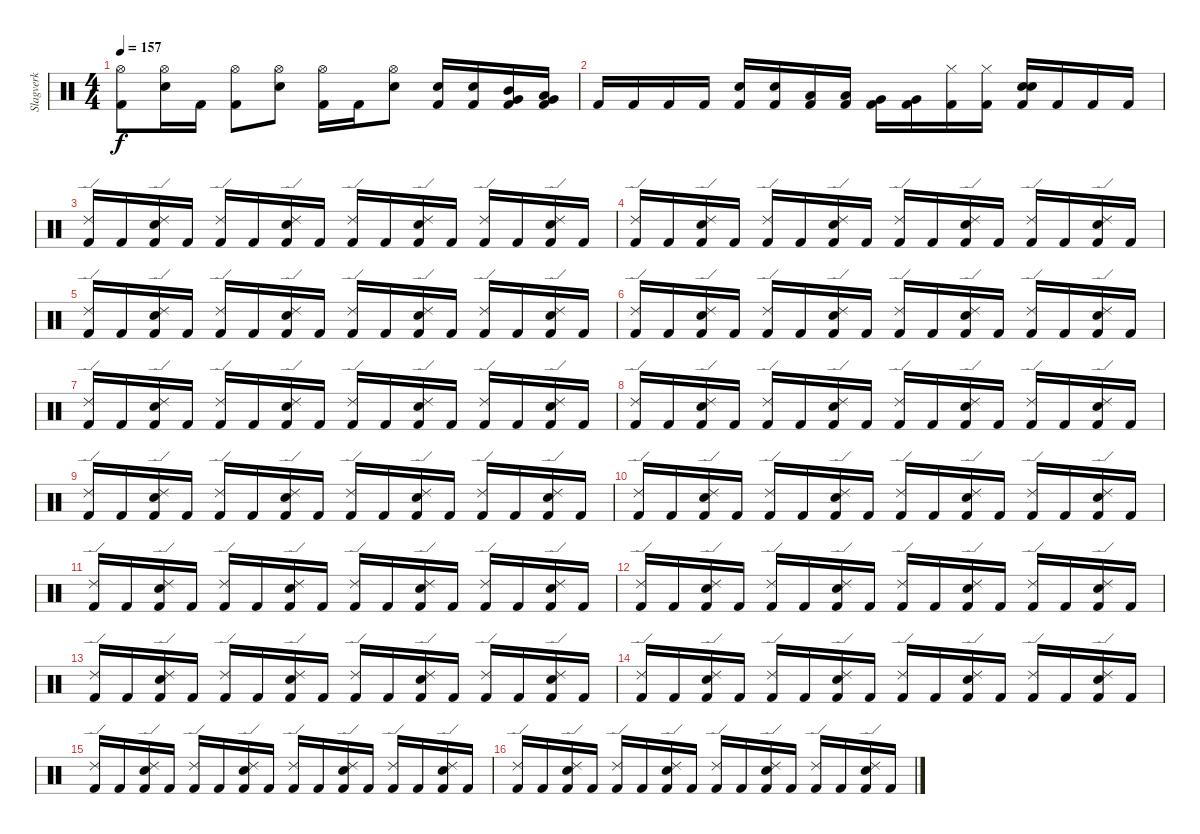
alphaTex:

\track ("Slagverk" "Slagverk") {instrument percussion}
\staff {score}
\articulation defaults
\ts (4 4)
\tempo 157
\clef neutral
\ks c
("Kick (hit) 2" "Hi-Hat (open)").8{dy f} ("Snare (hit) 2" "Hi-Hat (open)").16 "Kick (hit) 2".16 ("Kick (hit) 2" "Hi-Hat (open)").8 ("Snare (hit) 2" "Hi-Hat (open)").8 ("Kick (hit) 2" "Hi-Hat (open)").16 "Kick (hit) 2".16 ("Snare (hit) 2" "Hi-Hat (open)").8 ("Snare (hit) 2" "Kick (hit) 2").16 ("Snare (hit) 2" "Kick (hit) 2").16 ("Very Low Tom (hit)" "Mid Tom (hit)" "Kick (hit) 2").16 ("Low Tom (hit)" "Very Low Tom (hit)" "Kick (hit) 2").16 |
"Kick (hit) 2".16 "Kick (hit) 2".16 "Kick (hit) 2".16 "Kick (hit) 2".16 ("Snare (hit) 2" "Kick (hit) 2").16 ("Snare (hit) 2" "Kick (hit) 2").16 ("Low Tom (hit)" "Kick (hit) 2").16 ("Low Tom (hit)" "Kick (hit) 2").16 ("Very Low Tom (hit)" "Kick (hit) 2").16 ("Very Low Tom (hit)" "Kick (hit) 2").16 ("Hi-Hat (closed)" "Kick (hit) 2").16 ("Hi-Hat (closed)" "Kick (hit) 2").16 ("Snare (hit) 2" "Electric Snare (hit)" "Kick (hit) 2").16 "Kick (hit) 2".16 "Kick (hit) 2".16 "Kick (hit) 2".16 |
("Ride (edge) 2" "Kick (hit) 2").16 "Kick (hit) 2".16 ("Snare (hit) 2" "Ride (edge) 2" "Kick (hit) 2").16 "Kick (hit) 2".16 ("Ride (edge) 2" "Kick (hit) 2").16 "Kick (hit) 2".16 ("Snare (hit) 2" "Ride (edge) 2" "Kick (hit) 2").16 "Kick (hit) 2".16 ("Ride (edge) 2" "Kick (hit) 2").16 "Kick (hit) 2".16 ("Snare (hit) 2" "Ride (edge) 2" "Kick (hit) 2").16 "Kick (hit) 2".16 ("Ride (edge) 2" "Kick (hit) 2").16 "Kick (hit) 2".16 ("Snare (hit) 2" "Ride (edge) 2" "Kick (hit) 2").16 "Kick (hit) 2".16 |
("Ride (edge) 2" "Kick (hit) 2").16 "Kick (hit) 2".16 ("Snare (hit) 2" "Ride (edge) 2" "Kick (hit) 2").16 "Kick (hit) 2".16 ("Ride (edge) 2" "Kick (hit) 2").16 "Kick (hit) 2".16 ("Snare (hit) 2" "Ride (edge) 2" "Kick (hit) 2").16 "Kick (hit) 2".16 ("Ride (edge) 2" "Kick (hit) 2").16 "Kick (hit) 2".16 ("Snare (hit) 2" "Ride (edge) 2" "Kick (hit) 2").16 "Kick (hit) 2".16 ("Ride (edge) 2" "Kick (hit) 2").16 "Kick (hit) 2".16 ("Snare (hit) 2" "Ride (edge) 2" "Kick (hit) 2").16 "Kick (hit) 2".16 |
("Ride (edge) 2" "Kick (hit) 2").16 "Kick (hit) 2".16 ("Snare (hit) 2" "Ride (edge) 2" "Kick (hit) 2").16 "Kick (hit) 2".16 ("Ride (edge) 2" "Kick (hit) 2").16 "Kick (hit) 2".16 ("Snare (hit) 2" "Ride (edge) 2" "Kick (hit) 2").16 "Kick (hit) 2".16 ("Ride (edge) 2" "Kick (hit) 2").16 "Kick (hit) 2".16 ("Snare (hit) 2" "Ride (edge) 2" "Kick (hit) 2").16 "Kick (hit) 2".16 ("Ride (edge) 2" "Kick (hit) 2").16 "Kick (hit) 2".16 ("Snare (hit) 2" "Ride (edge) 2" "Kick (hit) 2").16 "Kick (hit) 2".16 |
("Ride (edge) 2" "Kick (hit) 2").16 "Kick (hit) 2".16 ("Snare (hit) 2" "Ride (edge) 2" "Kick (hit) 2").16 "Kick (hit) 2".16 ("Ride (edge) 2" "Kick (hit) 2").16 "Kick (hit) 2".16 ("Snare (hit) 2" "Ride (edge) 2" "Kick (hit) 2").16 "Kick (hit) 2".16 ("Ride (edge) 2" "Kick (hit) 2").16 "Kick (hit) 2".16 ("Snare (hit) 2" "Ride (edge) 2" "Kick (hit) 2").16 "Kick (hit) 2".16 ("Ride (edge) 2" "Kick (hit) 2").16 "Kick (hit) 2".16 ("Snare (hit) 2" "Ride (edge) 2" "Kick (hit) 2").16 "Kick (hit) 2".16 |
("Ride (edge) 2" "Kick (hit) 2").16 "Kick (hit) 2".16 ("Snare (hit) 2" "Ride (edge) 2" "Kick (hit) 2").16 "Kick (hit) 2".16 ("Ride (edge) 2" "Kick (hit) 2").16 "Kick (hit) 2".16 ("Snare (hit) 2" "Ride (edge) 2" "Kick (hit) 2").16 "Kick (hit) 2".16 ("Ride (edge) 2" "Kick (hit) 2").16 "Kick (hit) 2".16 ("Snare (hit) 2" "Ride (edge) 2" "Kick (hit) 2").16 "Kick (hit) 2".16 ("Ride (edge) 2" "Kick (hit) 2").16 "Kick (hit) 2".16 ("Snare (hit) 2" "Ride (edge) 2" "Kick (hit) 2").16 "Kick (hit) 2".16 |
("Ride (edge) 2" "Kick (hit) 2").16 "Kick (hit) 2".16 ("Snare (hit) 2" "Ride (edge) 2" "Kick (hit) 2").16 "Kick (hit) 2".16 ("Ride (edge) 2" "Kick (hit) 2").16 "Kick (hit) 2".16 ("Snare (hit) 2" "Ride (edge) 2" "Kick (hit) 2").16 "Kick (hit) 2".16 ("Ride (edge) 2" "Kick (hit) 2").16 "Kick (hit) 2".16 ("Snare (hit) 2" "Ride (edge) 2" "Kick (hit) 2").16 "Kick (hit) 2".16 ("Ride (edge) 2" "Kick (hit) 2").16 "Kick (hit) 2".16 ("Snare (hit) 2" "Ride (edge) 2" "Kick (hit) 2").16 "Kick (hit) 2".16 |
("Ride (edge) 2" "Kick (hit) 2").16 "Kick (hit) 2".16 ("Snare (hit) 2" "Ride (edge) 2" "Kick (hit) 2").16 "Kick (hit) 2".16 ("Ride (edge) 2" "Kick (hit) 2").16 "Kick (hit) 2".16 ("Snare (hit) 2" "Ride (edge) 2" "Kick (hit) 2").16 "Kick (hit) 2".16 ("Ride (edge) 2" "Kick (hit) 2").16 "Kick (hit) 2".16 ("Snare (hit) 2" "Ride (edge) 2" "Kick (hit) 2").16 "Kick (hit) 2".16 ("Ride (edge) 2" "Kick (hit) 2").16 "Kick (hit) 2".16 ("Snare (hit) 2" "Ride (edge) 2" "Kick (hit) 2").16 "Kick (hit) 2".16 |
("Ride (edge) 2" "Kick (hit) 2").16 "Kick (hit) 2".16 ("Snare (hit) 2" "Ride (edge) 2" "Kick (hit) 2").16 "Kick (hit) 2".16 ("Ride (edge) 2" "Kick (hit) 2").16 "Kick (hit) 2".16 ("Snare (hit) 2" "Ride (edge) 2" "Kick (hit) 2").16 "Kick (hit) 2".16 ("Ride (edge) 2" "Kick (hit) 2").16 "Kick (hit) 2".16 ("Snare (hit) 2" "Ride (edge) 2" "Kick (hit) 2").16 "Kick (hit) 2".16 ("Ride (edge) 2" "Kick (hit) 2").16 "Kick (hit) 2".16 ("Snare (hit) 2" "Ride (edge) 2" "Kick (hit) 2").16 "Kick (hit) 2".16 |
("Ride (edge) 2" "Kick (hit) 2").16 "Kick (hit) 2".16 ("Snare (hit) 2" "Ride (edge) 2" "Kick (hit) 2").16 "Kick (hit) 2".16 ("Ride (edge) 2" "Kick (hit) 2").16 "Kick (hit) 2".16 ("Snare (hit) 2" "Ride (edge) 2" "Kick (hit) 2").16 "Kick (hit) 2".16 ("Ride (edge) 2" "Kick (hit) 2").16 "Kick (hit) 2".16 ("Snare (hit) 2" "Ride (edge) 2" "Kick (hit) 2").16 "Kick (hit) 2".16 ("Ride (edge) 2" "Kick (hit) 2").16 "Kick (hit) 2".16 ("Snare (hit) 2" "Ride (edge) 2" "Kick (hit) 2").16 "Kick (hit) 2".16 |
("Ride (edge) 2" "Kick (hit) 2").16 "Kick (hit) 2".16 ("Snare (hit) 2" "Ride (edge) 2" "Kick (hit) 2").16 "Kick (hit) 2".16 ("Ride (edge) 2" "Kick (hit) 2").16 "Kick (hit) 2".16 ("Snare (hit) 2" "Ride (edge) 2" "Kick (hit) 2").16 "Kick (hit) 2".16 ("Ride (edge) 2" "Kick (hit) 2").16 "Kick (hit) 2".16 ("Snare (hit) 2" "Ride (edge) 2" "Kick (hit) 2").16 "Kick (hit) 2".16 ("Ride (edge) 2" "Kick (hit) 2").16 "Kick (hit) 2".16 ("Snare (hit) 2" "Ride (edge) 2" "Kick (hit) 2").16 "Kick (hit) 2".16 |
("Ride (edge) 2" "Kick (hit) 2").16 "Kick (hit) 2".16 ("Snare (hit) 2" "Ride (edge) 2" "Kick (hit) 2").16 "Kick (hit) 2".16 ("Ride (edge) 2" "Kick (hit) 2").16 "Kick (hit) 2".16 ("Snare (hit) 2" "Ride (edge) 2" "Kick (hit) 2").16 "Kick (hit) 2".16 ("Ride (edge) 2" "Kick (hit) 2").16 "Kick (hit) 2".16 ("Snare (hit) 2" "Ride (edge) 2" "Kick (hit) 2").16 "Kick (hit) 2".16 ("Ride (edge) 2" "Kick (hit) 2").16 "Kick (hit) 2".16 ("Snare (hit) 2" "Ride (edge) 2" "Kick (hit) 2").16 "Kick (hit) 2".16 |
("Ride (edge) 2" "Kick (hit) 2").16 "Kick (hit) 2".16 ("Snare (hit) 2" "Ride (edge) 2" "Kick (hit) 2").16 "Kick (hit) 2".16 ("Ride (edge) 2" "Kick (hit) 2").16 "Kick (hit) 2".16 ("Snare (hit) 2" "Ride (edge) 2" "Kick (hit) 2").16 "Kick (hit) 2".16 ("Ride (edge) 2" "Kick (hit) 2").16 "Kick (hit) 2".16 ("Snare (hit) 2" "Ride (edge) 2" "Kick (hit) 2").16 "Kick (hit) 2".16 ("Ride (edge) 2" "Kick (hit) 2").16 "Kick (hit) 2".16 ("Snare (hit) 2" "Ride (edge) 2" "Kick (hit) 2").16 "Kick (hit) 2".16 |
("Ride (edge) 2" "Kick (hit) 2").16 "Kick (hit) 2".16 ("Snare (hit) 2" "Ride (edge) 2" "Kick (hit) 2").16 "Kick (hit) 2".16 ("Ride (edge) 2" "Kick (hit) 2").16 "Kick (hit) 2".16 ("Snare (hit) 2" "Ride (edge) 2" "Kick (hit) 2").16 "Kick (hit) 2".16 ("Ride (edge) 2" "Kick (hit) 2").16 "Kick (hit) 2".16 ("Snare (hit) 2" "Ride (edge) 2" "Kick (hit) 2").16 "Kick (hit) 2".16 ("Ride (edge) 2" "Kick (hit) 2").16 "Kick (hit) 2".16 ("Snare (hit) 2" "Ride (edge) 2" "Kick (hit) 2").16 "Kick (hit) 2".16 |
("Ride (edge) 2" "Kick (hit) 2").16 "Kick (hit) 2".16 ("Snare (hit) 2" "Ride (edge) 2" "Kick (hit) 2").16 "Kick (hit) 2".16 ("Ride (edge) 2" "Kick (hit) 2").16 "Kick (hit) 2".16 ("Snare (hit) 2" "Ride (edge) 2" "Kick (hit) 2").16 "Kick (hit) 2".16 ("Ride (edge) 2" "Kick (hit) 2").16 "Kick (hit) 2".16 ("Snare (hit) 2" "Ride (edge) 2" "Kick (hit) 2").16 "Kick (hit) 2".16 ("Ride (edge) 2" "Kick (hit) 2").16 "Kick (hit) 2".16 ("Snare (hit) 2" "Ride (edge) 2" "Kick (hit) 2").16 "Kick (hit) 2".16
